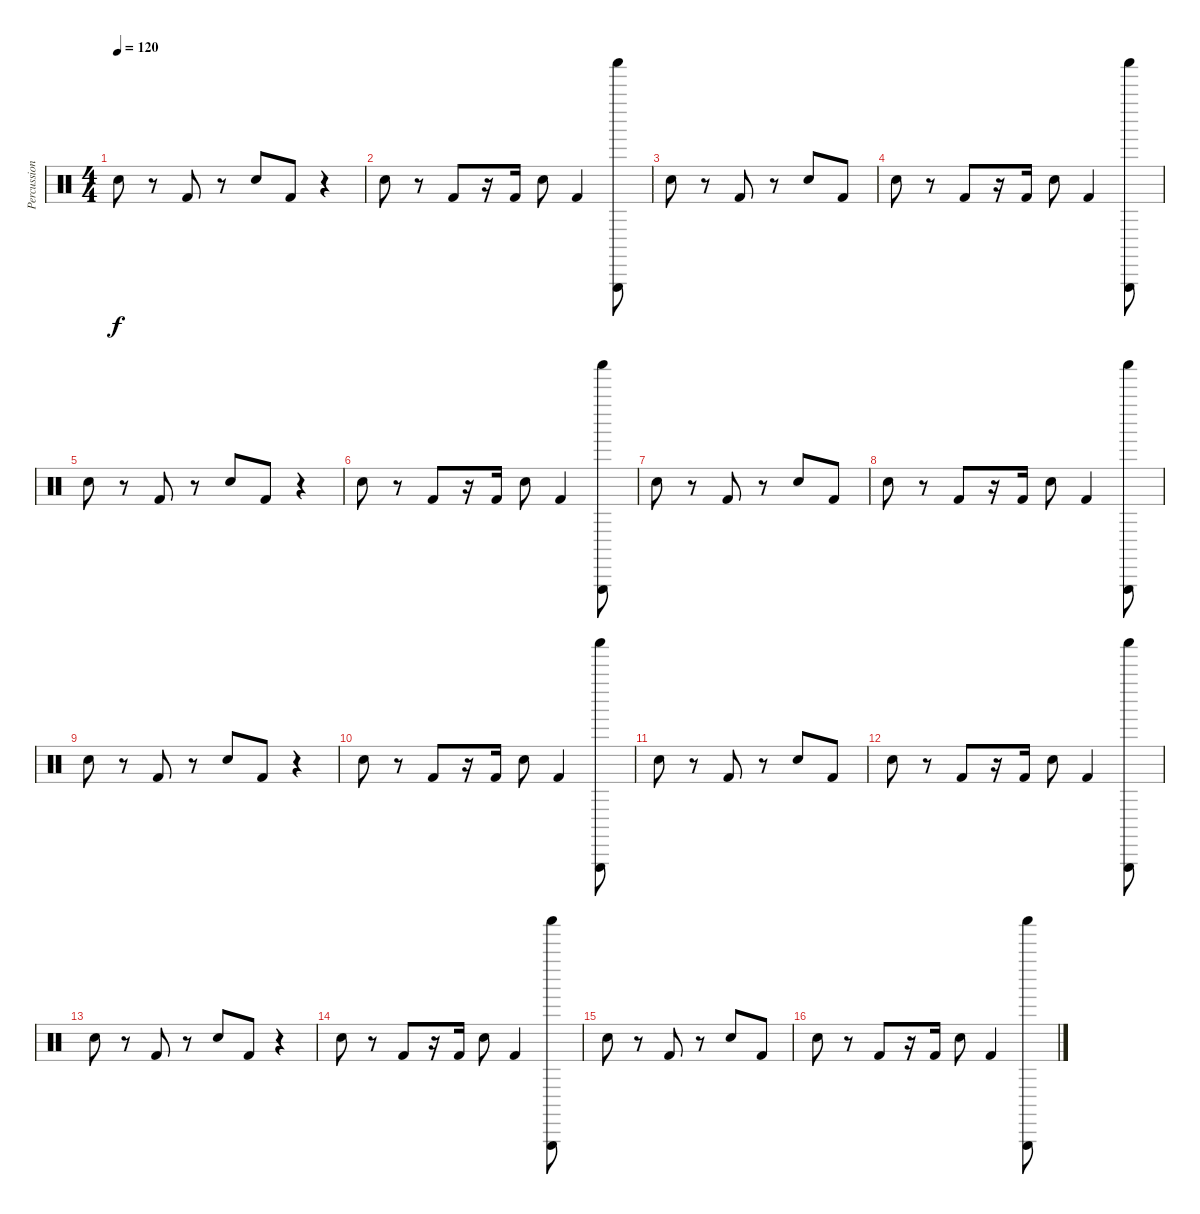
\track ("Percussion" "Percussion") {instrument percussion}
\staff {score}
\articulation defaults
\ts (4 4)
\tempo 120
\clef neutral
\ks c "Hand Clap (hit)".8{dy f}
r.8 "Kick (hit) 2".8 r.8 "Hand Clap (hit)".8 "Kick (hit) 2".8 r.4 |
"Hand Clap (hit)".8 r.8 "Kick (hit) 2".8 r.16 "Kick (hit) 2".16 "Hand Clap (hit)".8 "Kick (hit) 2".4 ("Shaker (hit)" "Triangle (hit)").8 |
"Hand Clap (hit)".8 r.8 "Kick (hit) 2".8 r.8 "Hand Clap (hit)".8 "Kick (hit) 2".8 |
"Hand Clap (hit)".8 r.8 "Kick (hit) 2".8 r.16 "Kick (hit) 2".16 "Hand Clap (hit)".8 "Kick (hit) 2".4 ("Shaker (hit)" "Triangle (hit)").8 |
"Hand Clap (hit)".8 r.8 "Kick (hit) 2".8 r.8 "Hand Clap (hit)".8 "Kick (hit) 2".8 r.4 |
"Hand Clap (hit)".8 r.8 "Kick (hit) 2".8 r.16 "Kick (hit) 2".16 "Hand Clap (hit)".8 "Kick (hit) 2".4 ("Shaker (hit)" "Triangle (hit)").8 |
"Hand Clap (hit)".8 r.8 "Kick (hit) 2".8 r.8 "Hand Clap (hit)".8 "Kick (hit) 2".8 |
"Hand Clap (hit)".8 r.8 "Kick (hit) 2".8 r.16 "Kick (hit) 2".16 "Hand Clap (hit)".8 "Kick (hit) 2".4 ("Shaker (hit)" "Triangle (hit)").8 |
"Hand Clap (hit)".8 r.8 "Kick (hit) 2".8 r.8 "Hand Clap (hit)".8 "Kick (hit) 2".8 r.4 |
"Hand Clap (hit)".8 r.8 "Kick (hit) 2".8 r.16 "Kick (hit) 2".16 "Hand Clap (hit)".8 "Kick (hit) 2".4 ("Shaker (hit)" "Triangle (hit)").8 |
"Hand Clap (hit)".8 r.8 "Kick (hit) 2".8 r.8 "Hand Clap (hit)".8 "Kick (hit) 2".8 |
"Hand Clap (hit)".8 r.8 "Kick (hit) 2".8 r.16 "Kick (hit) 2".16 "Hand Clap (hit)".8 "Kick (hit) 2".4 ("Shaker (hit)" "Triangle (hit)").8 |
"Hand Clap (hit)".8 r.8 "Kick (hit) 2".8 r.8 "Hand Clap (hit)".8 "Kick (hit) 2".8 r.4 |
"Hand Clap (hit)".8 r.8 "Kick (hit) 2".8 r.16 "Kick (hit) 2".16 "Hand Clap (hit)".8 "Kick (hit) 2".4 ("Shaker (hit)" "Triangle (hit)").8 |
"Hand Clap (hit)".8 r.8 "Kick (hit) 2".8 r.8 "Hand Clap (hit)".8 "Kick (hit) 2".8 |
"Hand Clap (hit)".8 r.8 "Kick (hit) 2".8 r.16 "Kick (hit) 2".16 "Hand Clap (hit)".8 "Kick (hit) 2".4 ("Shaker (hit)" "Triangle (hit)").8
